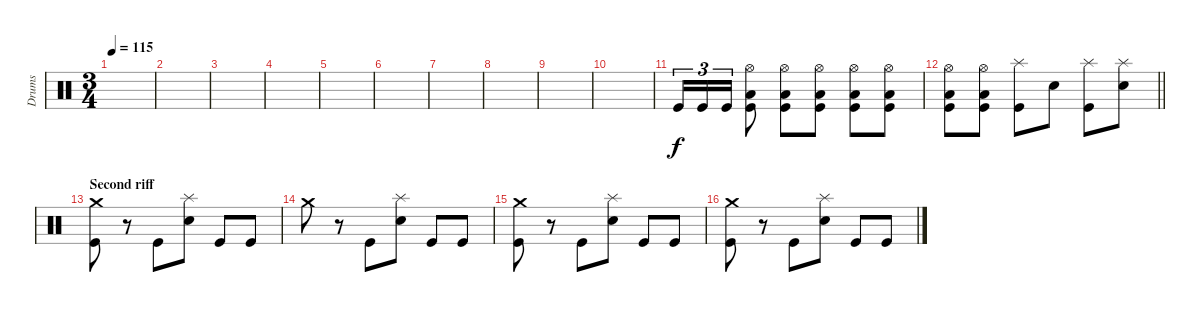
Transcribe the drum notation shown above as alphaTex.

\track ("Drums" "Drums") {instrument percussion}
\staff {score}
\articulation defaults
\ts (3 4)
\tempo 115
\clef neutral
\ks c
|
|
|
|
|
|
|
|
|
|
"Kick (hit)".16{tu (3 2)} "Kick (hit)".16{tu (3 2)} "Kick (hit)".16{tu (3 2)} ("Low Floor Tom (hit)" "Hi-Hat (open)" "Kick (hit)").8 ("Low Floor Tom (hit)" "Hi-Hat (open)" "Kick (hit)").8 ("Low Floor Tom (hit)" "Hi-Hat (open)" "Kick (hit)").8 ("Low Floor Tom (hit)" "Hi-Hat (open)" "Kick (hit)").8 ("Low Floor Tom (hit)" "Hi-Hat (open)" "Kick (hit)").8 |
\barLineRight lightlight
("Low Floor Tom (hit)" "Hi-Hat (open)" "Kick (hit)").8 ("Low Floor Tom (hit)" "Hi-Hat (open)" "Kick (hit)").8 ("Splash (hit)" "Kick (hit)").8 "Electric Snare (hit)".8 ("Splash (hit)" "Kick (hit)").8 ("Splash (hit)" "Electric Snare (hit)").8 |
\section ("" "Second riff")
("Crash medium (hit)" "Kick (hit)").8 r.8 "Kick (hit)".8 ("Splash (hit)" "Electric Snare (hit)").8 "Kick (hit)".8 "Kick (hit)".8 |
"Crash medium (hit)".8 r.8 "Kick (hit)".8 ("Splash (hit)" "Electric Snare (hit)").8 "Kick (hit)".8 "Kick (hit)".8 |
("Crash medium (hit)" "Kick (hit)").8 r.8 "Kick (hit)".8 ("Splash (hit)" "Electric Snare (hit)").8 "Kick (hit)".8 "Kick (hit)".8 |
("Crash medium (hit)" "Kick (hit)").8 r.8 "Kick (hit)".8 ("Splash (hit)" "Electric Snare (hit)").8 "Kick (hit)".8 "Kick (hit)".8
